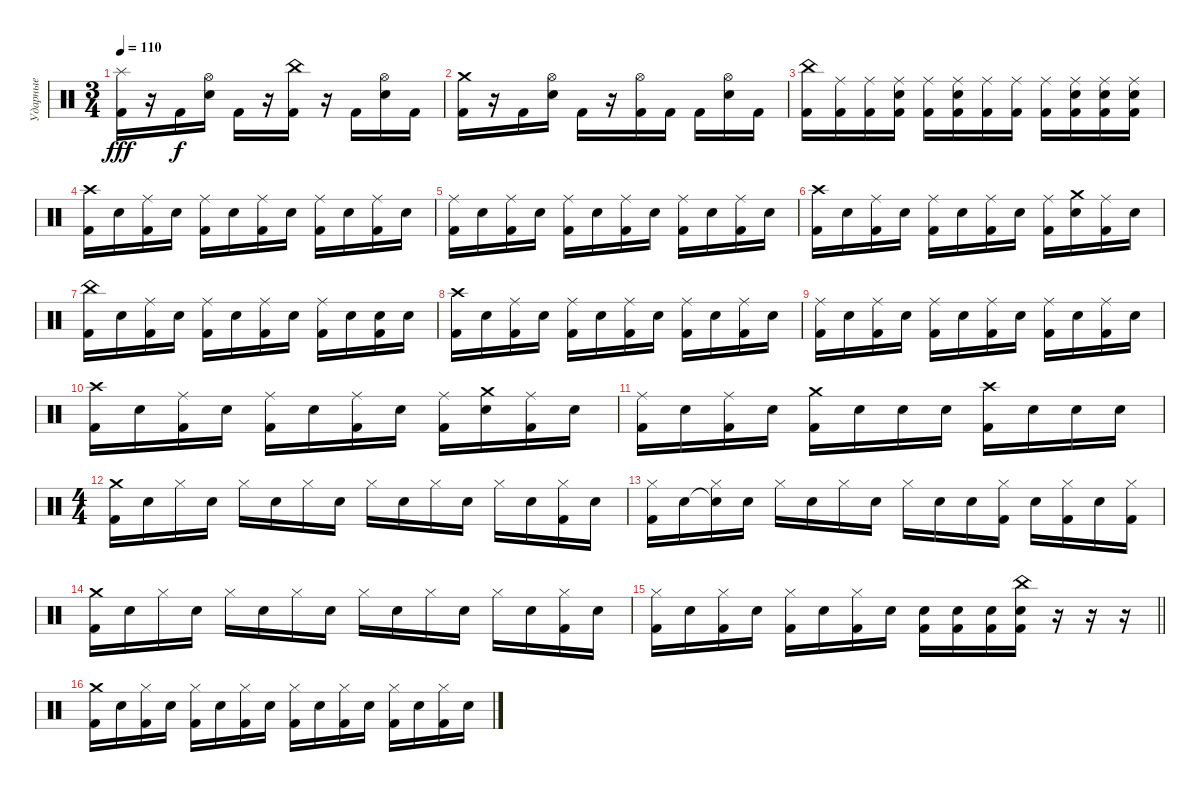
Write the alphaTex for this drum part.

\track ("Ударные" "Ударные") {instrument percussion}
\staff {score}
\articulation defaults
\ts (3 4)
\tempo 110
\clef neutral
\ks c
("Splash (hit)" "Kick (hit) 2").16{dy fff} r.16 "Kick (hit) 2".16{dy f} ("Hi-Hat (open)" "Snare (hit) 2").16 "Kick (hit) 2".16 r.16 ("China (hit)" "Kick (hit) 2").16 r.16 "Kick (hit) 2".16 ("Hi-Hat (open)" "Snare (hit) 2").16 "Kick (hit) 2".16 |
("Crash medium (hit)" "Kick (hit) 2").16 r.16 "Kick (hit) 2".16 ("Hi-Hat (open)" "Snare (hit) 2").16 "Kick (hit) 2".16 r.16 ("Hi-Hat (open)" "Kick (hit) 2").16 "Kick (hit) 2".16 "Kick (hit) 2".16 ("Hi-Hat (open)" "Snare (hit) 2").16 "Kick (hit) 2".16 |
("China (hit)" "Kick (hit) 2").16 ("Ride (middle)" "Kick (hit) 2").16 ("Ride (middle)" "Kick (hit) 2").16 ("Ride (middle)" "Snare (hit) 2" "Kick (hit) 2").16 ("Ride (middle)" "Kick (hit) 2").16 ("Ride (middle)" "Snare (hit) 2" "Kick (hit) 2").16 ("Ride (middle)" "Kick (hit) 2").16 ("Ride (middle)" "Kick (hit) 2").16 ("Ride (middle)" "Kick (hit) 2").16 ("Ride (middle)" "Snare (hit) 2" "Kick (hit) 2").16 ("Ride (middle)" "Snare (hit) 2" "Kick (hit) 2").16 ("Ride (middle)" "Snare (hit) 2" "Kick (hit) 2").16 |
("Crash high (hit)" "Kick (hit) 2").16 "Snare (hit) 2".16 ("Ride (middle)" "Kick (hit) 2").16 "Snare (hit) 2".16 ("Ride (middle)" "Kick (hit) 2").16 "Snare (hit) 2".16 ("Ride (middle)" "Kick (hit) 2").16 "Snare (hit) 2".16 ("Ride (middle)" "Kick (hit) 2").16 "Snare (hit) 2".16 ("Ride (middle)" "Kick (hit) 2").16 "Snare (hit) 2".16 |
("Ride (middle)" "Kick (hit) 2").16 "Snare (hit) 2".16 ("Ride (middle)" "Kick (hit) 2").16 "Snare (hit) 2".16 ("Ride (middle)" "Kick (hit) 2").16 "Snare (hit) 2".16 ("Ride (middle)" "Kick (hit) 2").16 "Snare (hit) 2".16 ("Ride (middle)" "Kick (hit) 2").16 "Snare (hit) 2".16 ("Ride (middle)" "Kick (hit) 2").16 "Snare (hit) 2".16 |
("Crash high (hit)" "Kick (hit) 2").16 "Snare (hit) 2".16 ("Ride (middle)" "Kick (hit) 2").16 "Snare (hit) 2".16 ("Ride (middle)" "Kick (hit) 2").16 "Snare (hit) 2".16 ("Ride (middle)" "Kick (hit) 2").16 "Snare (hit) 2".16 ("Ride (middle)" "Kick (hit) 2").16 ("Crash medium (hit)" "Snare (hit) 2").16 ("Ride (middle)" "Kick (hit) 2").16 "Snare (hit) 2".16 |
("China (hit)" "Kick (hit) 2").16 "Snare (hit) 2".16 ("Ride (middle)" "Kick (hit) 2").16 "Snare (hit) 2".16 ("Ride (middle)" "Kick (hit) 2").16 "Snare (hit) 2".16 ("Ride (middle)" "Kick (hit) 2").16 "Snare (hit) 2".16 ("Ride (middle)" "Kick (hit) 2").16 "Snare (hit) 2".16 ("Snare (hit) 2" "Kick (hit) 2").16 "Snare (hit) 2".16 |
("Crash high (hit)" "Kick (hit) 2").16 "Snare (hit) 2".16 ("Ride (middle)" "Kick (hit) 2").16 "Snare (hit) 2".16 ("Ride (middle)" "Kick (hit) 2").16 "Snare (hit) 2".16 ("Ride (middle)" "Kick (hit) 2").16 "Snare (hit) 2".16 ("Ride (middle)" "Kick (hit) 2").16 "Snare (hit) 2".16 ("Ride (middle)" "Kick (hit) 2").16 "Snare (hit) 2".16 |
("Ride (middle)" "Kick (hit) 2").16 "Snare (hit) 2".16 ("Ride (middle)" "Kick (hit) 2").16 "Snare (hit) 2".16 ("Ride (middle)" "Kick (hit) 2").16 "Snare (hit) 2".16 ("Ride (middle)" "Kick (hit) 2").16 "Snare (hit) 2".16 ("Ride (middle)" "Kick (hit) 2").16 "Snare (hit) 2".16 ("Ride (middle)" "Kick (hit) 2").16 "Snare (hit) 2".16 |
("Crash high (hit)" "Kick (hit) 2").16 "Snare (hit) 2".16 ("Ride (middle)" "Kick (hit) 2").16 "Snare (hit) 2".16 ("Ride (middle)" "Kick (hit) 2").16 "Snare (hit) 2".16 ("Ride (middle)" "Kick (hit) 2").16 "Snare (hit) 2".16 ("Ride (middle)" "Kick (hit) 2").16 ("Crash medium (hit)" "Snare (hit) 2").16 ("Ride (middle)" "Kick (hit) 2").16 "Snare (hit) 2".16 |
("Ride (middle)" "Kick (hit) 2").16 "Snare (hit) 2".16 ("Ride (middle)" "Kick (hit) 2").16 "Snare (hit) 2".16 ("Crash medium (hit)" "Kick (hit) 2").16 "Snare (hit) 2".16 "Snare (hit) 2".16 "Snare (hit) 2".16 ("Crash high (hit)" "Kick (hit) 2").16 "Snare (hit) 2".16 "Snare (hit) 2".16 "Snare (hit) 2".16 |
\ts (4 4)
("Crash medium (hit)" "Kick (hit) 2").16 "Snare (hit) 2".16 "Hi-Hat (closed)".16 "Snare (hit) 2".16 "Hi-Hat (closed)".16 "Snare (hit) 2".16 "Hi-Hat (closed)".16 "Snare (hit) 2".16 "Hi-Hat (closed)".16 "Snare (hit) 2".16 "Hi-Hat (closed)".16 "Snare (hit) 2".16 "Hi-Hat (closed)".16 "Snare (hit) 2".16 ("Hi-Hat (closed)" "Kick (hit) 2").16 "Snare (hit) 2".16 |
("Hi-Hat (closed)" "Kick (hit) 2").16 "Snare (hit) 2".16 ("Snare (hit)"{t} "Hi-Hat (closed)").16 "Snare (hit) 2".16 "Hi-Hat (closed)".16 "Snare (hit) 2".16 "Hi-Hat (closed)".16 "Snare (hit) 2".16 "Hi-Hat (closed)".16 "Snare (hit) 2".16 "Snare (hit) 2".16 ("Hi-Hat (closed)" "Kick (hit) 2").16 "Snare (hit) 2".16 ("Hi-Hat (closed)" "Kick (hit) 2").16 "Snare (hit) 2".16 ("Hi-Hat (closed)" "Kick (hit) 2").16 |
("Crash medium (hit)" "Kick (hit) 2").16 "Snare (hit) 2".16 "Hi-Hat (closed)".16 "Snare (hit) 2".16 "Hi-Hat (closed)".16 "Snare (hit) 2".16 "Hi-Hat (closed)".16 "Snare (hit) 2".16 "Hi-Hat (closed)".16 "Snare (hit) 2".16 "Hi-Hat (closed)".16 "Snare (hit) 2".16 "Hi-Hat (closed)".16 "Snare (hit) 2".16 ("Hi-Hat (closed)" "Kick (hit) 2").16 "Snare (hit) 2".16 |
\barLineRight lightlight
("Hi-Hat (closed)" "Kick (hit) 2").16 "Snare (hit) 2".16 ("Hi-Hat (closed)" "Kick (hit) 2").16 "Snare (hit) 2".16 ("Hi-Hat (closed)" "Kick (hit) 2").16 "Snare (hit) 2".16 ("Hi-Hat (closed)" "Kick (hit) 2").16 "Snare (hit) 2".16 ("Snare (hit) 2" "Kick (hit) 2").16 ("Snare (hit) 2" "Kick (hit) 2").16 ("Snare (hit) 2" "Kick (hit) 2").16 ("China (hit)" "Snare (hit) 2" "Kick (hit) 2").16 r.16 r.16 r.16 |
("Crash medium (hit)" "Kick (hit) 2").16 "Snare (hit) 2".16 ("Hi-Hat (closed)" "Kick (hit) 2").16 "Snare (hit) 2".16 ("Hi-Hat (closed)" "Kick (hit) 2").16 "Snare (hit) 2".16 ("Hi-Hat (closed)" "Kick (hit) 2").16 "Snare (hit) 2".16 ("Hi-Hat (closed)" "Kick (hit) 2").16 "Snare (hit) 2".16 ("Hi-Hat (closed)" "Kick (hit) 2").16 "Snare (hit) 2".16 ("Hi-Hat (closed)" "Kick (hit) 2").16 "Snare (hit) 2".16 ("Hi-Hat (closed)" "Kick (hit) 2").16 "Snare (hit) 2".16
